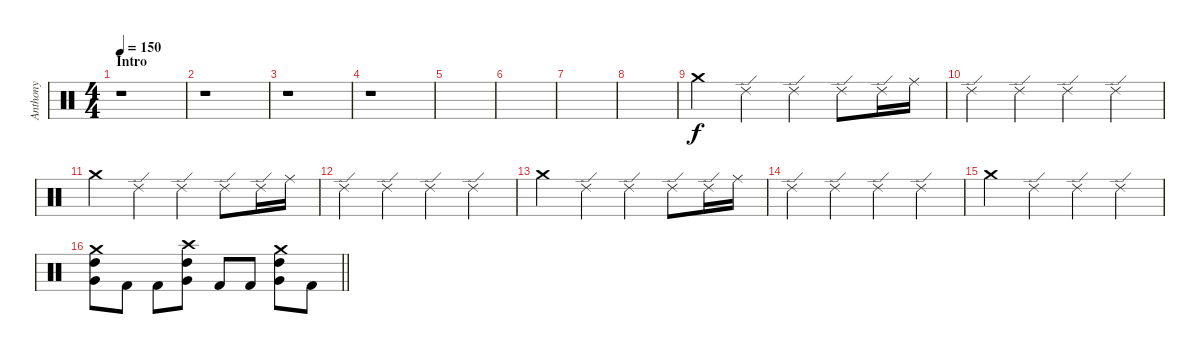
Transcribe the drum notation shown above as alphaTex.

\track ("Anthony" "Anthony") {instrument percussion}
\staff {score}
\articulation defaults
\ts (4 4)
\section ("" "Intro")
\tempo 150
\clef neutral
\ks c
r.1{dy f} |
r.1 |
r.1 |
r.1 |
|
|
|
|
"Crash medium (hit)".4 "Ride (edge) 2".4 "Ride (edge) 2".4 "Ride (edge) 2".8 "Ride (edge) 2".16 "Ride (middle)".16 |
"Ride (edge) 2".4 "Ride (edge) 2".4 "Ride (edge) 2".4 "Ride (edge) 2".4 |
"Crash medium (hit)".4 "Ride (edge) 2".4 "Ride (edge) 2".4 "Ride (edge) 2".8 "Ride (edge) 2".16 "Ride (middle)".16 |
"Ride (edge) 2".4 "Ride (edge) 2".4 "Ride (edge) 2".4 "Ride (edge) 2".4 |
"Crash medium (hit)".4 "Ride (edge) 2".4 "Ride (edge) 2".4 "Ride (edge) 2".8 "Ride (edge) 2".16 "Ride (middle)".16 |
"Ride (edge) 2".4 "Ride (edge) 2".4 "Ride (edge) 2".4 "Ride (edge) 2".4 |
"Crash medium (hit)".4 "Ride (edge) 2".4 "Ride (edge) 2".4 "Ride (edge) 2".4 |
\barLineRight lightlight
("High Tom (hit)" "Very Low Tom (hit)" "Crash medium (hit)").8 "Kick (hit) 2".8 "Kick (hit) 2".8 ("High Tom (hit)" "Very Low Tom (hit)" "Crash high (hit)").8 "Kick (hit) 2".8 "Kick (hit) 2".8 ("High Tom (hit)" "Very Low Tom (hit)" "Crash medium (hit)").8 "Kick (hit) 2".8
